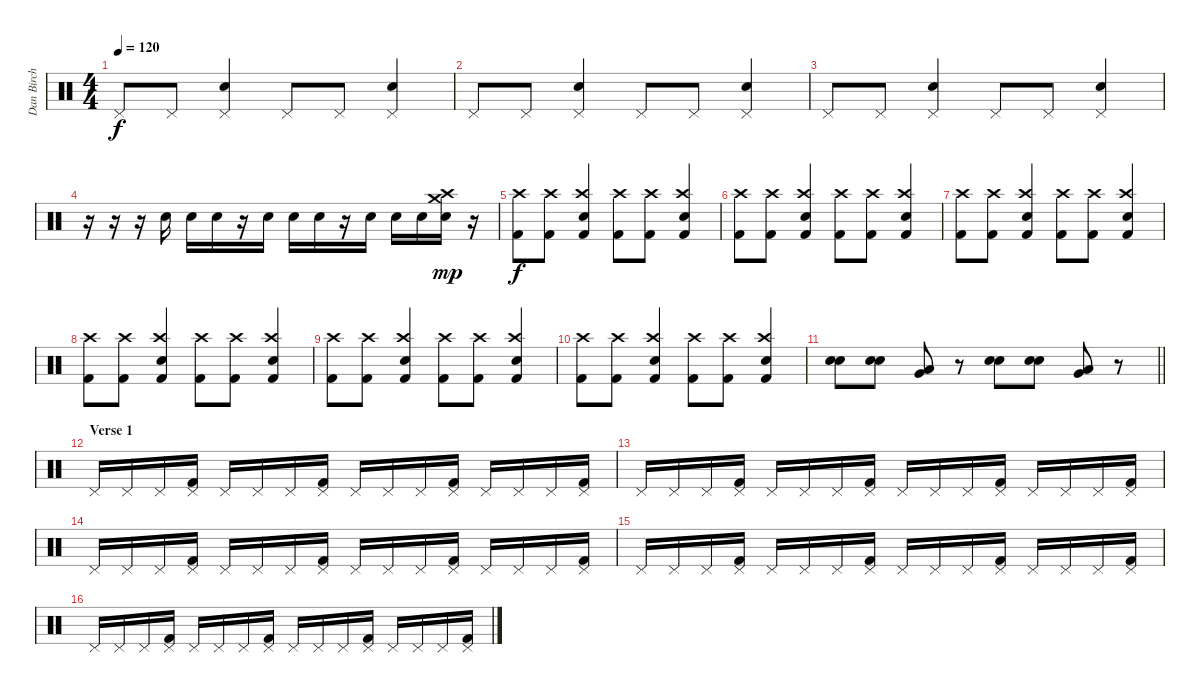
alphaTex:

\track ("Dan Birch" "Dan Birch") {instrument percussion}
\staff {score}
\articulation defaults
\ts (4 4)
\tempo 120
\clef neutral
\ks c "Pedal Hi-Hat (hit)".8{dy f} "Pedal Hi-Hat (hit)".8
("Pedal Hi-Hat (hit)" "Snare (hit) 2").4 "Pedal Hi-Hat (hit)".8 "Pedal Hi-Hat (hit)".8 ("Pedal Hi-Hat (hit)" "Snare (hit) 2").4 |
"Pedal Hi-Hat (hit)".8 "Pedal Hi-Hat (hit)".8 ("Pedal Hi-Hat (hit)" "Snare (hit) 2").4 "Pedal Hi-Hat (hit)".8 "Pedal Hi-Hat (hit)".8 ("Pedal Hi-Hat (hit)" "Snare (hit) 2").4 |
"Pedal Hi-Hat (hit)".8 "Pedal Hi-Hat (hit)".8 ("Pedal Hi-Hat (hit)" "Snare (hit) 2").4 "Pedal Hi-Hat (hit)".8 "Pedal Hi-Hat (hit)".8 ("Pedal Hi-Hat (hit)" "Snare (hit) 2").4 |
r.16 r.16 r.16 "Snare (hit) 2".16 "Snare (hit) 2".16 "Snare (hit) 2".16 r.16 "Snare (hit) 2".16 "Snare (hit) 2".16 "Snare (hit) 2".16 r.16 "Snare (hit) 2".16 "Snare (hit) 2".16 "Snare (hit) 2".16 ("Snare (hit) 2" "Crash medium (hit)" "Crash high (hit)").16{dy mp} r.16 |
("Crash high (hit)" "Kick (hit) 2").8{dy f} ("Crash high (hit)" "Kick (hit) 2").8 ("Crash high (hit)" "Snare (hit) 2" "Kick (hit) 2").4 ("Crash high (hit)" "Kick (hit) 2").8 ("Crash high (hit)" "Kick (hit) 2").8 ("Crash high (hit)" "Snare (hit) 2" "Kick (hit) 2").4 |
("Crash high (hit)" "Kick (hit) 2").8 ("Crash high (hit)" "Kick (hit) 2").8 ("Crash high (hit)" "Snare (hit) 2" "Kick (hit) 2").4 ("Crash high (hit)" "Kick (hit) 2").8 ("Crash high (hit)" "Kick (hit) 2").8 ("Crash high (hit)" "Snare (hit) 2" "Kick (hit) 2").4 |
("Crash high (hit)" "Kick (hit) 2").8 ("Crash high (hit)" "Kick (hit) 2").8 ("Crash high (hit)" "Snare (hit) 2" "Kick (hit) 2").4 ("Crash high (hit)" "Kick (hit) 2").8 ("Crash high (hit)" "Kick (hit) 2").8 ("Crash high (hit)" "Snare (hit) 2" "Kick (hit) 2").4 |
("Crash high (hit)" "Kick (hit) 2").8 ("Crash high (hit)" "Kick (hit) 2").8 ("Crash high (hit)" "Snare (hit) 2" "Kick (hit) 2").4 ("Crash high (hit)" "Kick (hit) 2").8 ("Crash high (hit)" "Kick (hit) 2").8 ("Crash high (hit)" "Snare (hit) 2" "Kick (hit) 2").4 |
("Crash high (hit)" "Kick (hit) 2").8 ("Crash high (hit)" "Kick (hit) 2").8 ("Crash high (hit)" "Snare (hit) 2" "Kick (hit) 2").4 ("Crash high (hit)" "Kick (hit) 2").8 ("Crash high (hit)" "Kick (hit) 2").8 ("Crash high (hit)" "Snare (hit) 2" "Kick (hit) 2").4 |
("Crash high (hit)" "Kick (hit) 2").8 ("Crash high (hit)" "Kick (hit) 2").8 ("Crash high (hit)" "Snare (hit) 2" "Kick (hit) 2").4 ("Crash high (hit)" "Kick (hit) 2").8 ("Crash high (hit)" "Kick (hit) 2").8 ("Crash high (hit)" "Snare (hit) 2" "Kick (hit) 2").4 |
\barLineRight lightlight
("Snare (hit) 2" "Snare (hit) 2").8 ("Snare (hit) 2" "Snare (hit) 2").8 ("Very Low Tom (hit)" "Low Tom (hit)").8 r.8 ("Snare (hit) 2" "Snare (hit) 2").8 ("Snare (hit) 2" "Snare (hit) 2").8 ("Very Low Tom (hit)" "Low Tom (hit)").8 r.8 |
\section ("" "Verse 1")
"Pedal Hi-Hat (hit)".16 "Pedal Hi-Hat (hit)".16 "Pedal Hi-Hat (hit)".16 ("Pedal Hi-Hat (hit)" "Kick (hit) 2").16 "Pedal Hi-Hat (hit)".16 "Pedal Hi-Hat (hit)".16 "Pedal Hi-Hat (hit)".16 ("Pedal Hi-Hat (hit)" "Kick (hit) 2").16 "Pedal Hi-Hat (hit)".16 "Pedal Hi-Hat (hit)".16 "Pedal Hi-Hat (hit)".16 ("Pedal Hi-Hat (hit)" "Kick (hit) 2").16 "Pedal Hi-Hat (hit)".16 "Pedal Hi-Hat (hit)".16 "Pedal Hi-Hat (hit)".16 ("Pedal Hi-Hat (hit)" "Kick (hit) 2").16 |
"Pedal Hi-Hat (hit)".16 "Pedal Hi-Hat (hit)".16 "Pedal Hi-Hat (hit)".16 ("Pedal Hi-Hat (hit)" "Kick (hit) 2").16 "Pedal Hi-Hat (hit)".16 "Pedal Hi-Hat (hit)".16 "Pedal Hi-Hat (hit)".16 ("Pedal Hi-Hat (hit)" "Kick (hit) 2").16 "Pedal Hi-Hat (hit)".16 "Pedal Hi-Hat (hit)".16 "Pedal Hi-Hat (hit)".16 ("Pedal Hi-Hat (hit)" "Kick (hit) 2").16 "Pedal Hi-Hat (hit)".16 "Pedal Hi-Hat (hit)".16 "Pedal Hi-Hat (hit)".16 ("Pedal Hi-Hat (hit)" "Kick (hit) 2").16 |
"Pedal Hi-Hat (hit)".16 "Pedal Hi-Hat (hit)".16 "Pedal Hi-Hat (hit)".16 ("Pedal Hi-Hat (hit)" "Kick (hit) 2").16 "Pedal Hi-Hat (hit)".16 "Pedal Hi-Hat (hit)".16 "Pedal Hi-Hat (hit)".16 ("Pedal Hi-Hat (hit)" "Kick (hit) 2").16 "Pedal Hi-Hat (hit)".16 "Pedal Hi-Hat (hit)".16 "Pedal Hi-Hat (hit)".16 ("Pedal Hi-Hat (hit)" "Kick (hit) 2").16 "Pedal Hi-Hat (hit)".16 "Pedal Hi-Hat (hit)".16 "Pedal Hi-Hat (hit)".16 ("Pedal Hi-Hat (hit)" "Kick (hit) 2").16 |
"Pedal Hi-Hat (hit)".16 "Pedal Hi-Hat (hit)".16 "Pedal Hi-Hat (hit)".16 ("Pedal Hi-Hat (hit)" "Kick (hit) 2").16 "Pedal Hi-Hat (hit)".16 "Pedal Hi-Hat (hit)".16 "Pedal Hi-Hat (hit)".16 ("Pedal Hi-Hat (hit)" "Kick (hit) 2").16 "Pedal Hi-Hat (hit)".16 "Pedal Hi-Hat (hit)".16 "Pedal Hi-Hat (hit)".16 ("Pedal Hi-Hat (hit)" "Kick (hit) 2").16 "Pedal Hi-Hat (hit)".16 "Pedal Hi-Hat (hit)".16 "Pedal Hi-Hat (hit)".16 ("Pedal Hi-Hat (hit)" "Kick (hit) 2").16 |
"Pedal Hi-Hat (hit)".16 "Pedal Hi-Hat (hit)".16 "Pedal Hi-Hat (hit)".16 ("Pedal Hi-Hat (hit)" "Kick (hit) 2").16 "Pedal Hi-Hat (hit)".16 "Pedal Hi-Hat (hit)".16 "Pedal Hi-Hat (hit)".16 ("Pedal Hi-Hat (hit)" "Kick (hit) 2").16 "Pedal Hi-Hat (hit)".16 "Pedal Hi-Hat (hit)".16 "Pedal Hi-Hat (hit)".16 ("Pedal Hi-Hat (hit)" "Kick (hit) 2").16 "Pedal Hi-Hat (hit)".16 "Pedal Hi-Hat (hit)".16 "Pedal Hi-Hat (hit)".16 ("Pedal Hi-Hat (hit)" "Kick (hit) 2").16
